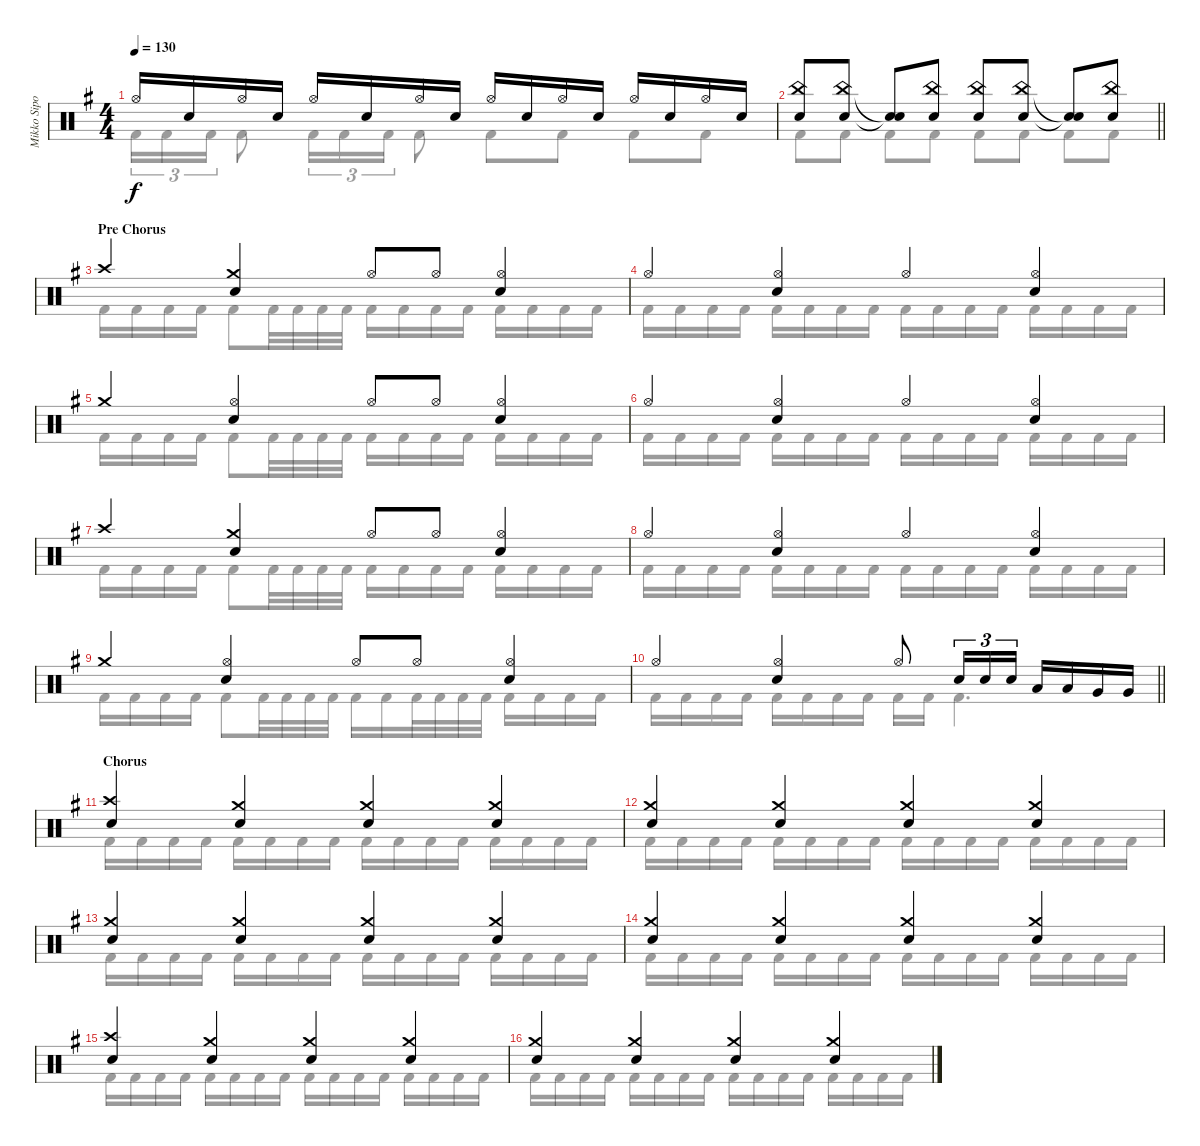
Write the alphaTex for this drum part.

\track ("Mikko Sipola (drums)" "Mikko Sipo") {instrument percussion}
\staff {score}
\articulation defaults
\voice
\ts (4 4)
\tempo 130
\clef neutral
\ks eminor "Hi-Hat (open)".16{dy f} "Electric Snare (hit)".16 "Hi-Hat (open)".16 "Electric Snare (hit)".16 "Hi-Hat (open)".16 "Electric Snare (hit)".16 "Hi-Hat (open)".16 "Electric Snare (hit)".16 "Hi-Hat (open)".16 "Electric Snare (hit)".16 "Hi-Hat (open)".16 "Electric Snare (hit)".16 "Hi-Hat (open)".16 "Electric Snare (hit)".16 "Hi-Hat (open)".16 "Electric Snare (hit)".16
|
\barLineRight lightlight
("Electric Snare (hit)" "China (hit)").8 ("Electric Snare (hit)" "China (hit)").8 ("Electric Snare (hit)"{t} "Snare (hit)"{t}).8 ("Electric Snare (hit)" "China (hit)").8 ("Electric Snare (hit)" "China (hit)").8 ("Electric Snare (hit)" "China (hit)").8 ("Electric Snare (hit)"{t} "Snare (hit)"{t}).8 ("Electric Snare (hit)" "China (hit)").8 |
\section ("" "Pre Chorus")
"Crash high (hit)".4 ("Crash medium (hit)" "Electric Snare (hit)").4 "Hi-Hat (open)".8 "Hi-Hat (open)".8 ("Hi-Hat (open)" "Electric Snare (hit)").4 |
"Hi-Hat (open)".4 ("Hi-Hat (open)" "Electric Snare (hit)").4 "Hi-Hat (open)".4 ("Hi-Hat (open)" "Electric Snare (hit)").4 |
"Crash medium (hit)".4 ("Hi-Hat (open)" "Electric Snare (hit)").4 "Hi-Hat (open)".8 "Hi-Hat (open)".8 ("Hi-Hat (open)" "Electric Snare (hit)").4 |
"Hi-Hat (open)".4 ("Hi-Hat (open)" "Electric Snare (hit)").4 "Hi-Hat (open)".4 ("Hi-Hat (open)" "Electric Snare (hit)").4 |
"Crash high (hit)".4 ("Crash medium (hit)" "Electric Snare (hit)").4 "Hi-Hat (open)".8 "Hi-Hat (open)".8 ("Hi-Hat (open)" "Electric Snare (hit)").4 |
"Hi-Hat (open)".4 ("Hi-Hat (open)" "Electric Snare (hit)").4 "Hi-Hat (open)".4 ("Hi-Hat (open)" "Electric Snare (hit)").4 |
"Crash medium (hit)".4 ("Hi-Hat (open)" "Electric Snare (hit)").4 "Hi-Hat (open)".8 "Hi-Hat (open)".8 ("Hi-Hat (open)" "Electric Snare (hit)").4 |
\barLineRight lightlight "Hi-Hat (open)".4
("Hi-Hat (open)" "Electric Snare (hit)").4 "Hi-Hat (open)".8 "Electric Snare (hit)".16{tu (3 2)} "Electric Snare (hit)".16{tu (3 2)} "Electric Snare (hit)".16{tu (3 2)} "Low Tom (hit)".16 "Low Tom (hit)".16 "Very Low Tom (hit)".16 "Very Low Tom (hit)".16 |
\section ("" "Chorus")
("Crash high (hit)" "Electric Snare (hit)").4 ("Crash medium (hit)" "Electric Snare (hit)").4 ("Crash medium (hit)" "Electric Snare (hit)").4 ("Crash medium (hit)" "Electric Snare (hit)").4 |
("Crash medium (hit)" "Electric Snare (hit)").4 ("Crash medium (hit)" "Electric Snare (hit)").4 ("Crash medium (hit)" "Electric Snare (hit)").4 ("Crash medium (hit)" "Electric Snare (hit)").4 |
("Crash medium (hit)" "Electric Snare (hit)").4 ("Crash medium (hit)" "Electric Snare (hit)").4 ("Crash medium (hit)" "Electric Snare (hit)").4 ("Crash medium (hit)" "Electric Snare (hit)").4 |
("Crash medium (hit)" "Electric Snare (hit)").4 ("Crash medium (hit)" "Electric Snare (hit)").4 ("Crash medium (hit)" "Electric Snare (hit)").4 ("Crash medium (hit)" "Electric Snare (hit)").4 |
("Crash high (hit)" "Electric Snare (hit)").4 ("Crash medium (hit)" "Electric Snare (hit)").4 ("Crash medium (hit)" "Electric Snare (hit)").4 ("Crash medium (hit)" "Electric Snare (hit)").4 |
("Crash medium (hit)" "Electric Snare (hit)").4 ("Crash medium (hit)" "Electric Snare (hit)").4 ("Crash medium (hit)" "Electric Snare (hit)").4 ("Crash medium (hit)" "Electric Snare (hit)").4
\voice
\clef neutral
\ottava regular
\simile none
\ks eminor "Kick (hit) 2".16{tu (3 2) dy f} "Kick (hit) 2".16{tu (3 2)} "Kick (hit) 2".16{tu (3 2)} "Kick (hit) 2".8 "Kick (hit) 2".16{tu (3 2)} "Kick (hit) 2".16{tu (3 2)} "Kick (hit) 2".16{tu (3 2)} "Kick (hit) 2".8 "Kick (hit) 2".8 "Kick (hit) 2".8 "Kick (hit) 2".8 "Kick (hit) 2".8
|
\barLineRight lightlight "Kick (hit) 2".8 "Kick (hit) 2".8 "Kick (hit) 2".8 "Kick (hit) 2".8 "Kick (hit) 2".8 "Kick (hit) 2".8 "Kick (hit) 2".8 "Kick (hit) 2".8
|
"Kick (hit) 2".16 "Kick (hit) 2".16 "Kick (hit) 2".16 "Kick (hit) 2".16 "Kick (hit) 2".8 "Kick (hit) 2".32 "Kick (hit) 2".32 "Kick (hit) 2".32 "Kick (hit) 2".32 "Kick (hit) 2".16 "Kick (hit) 2".16 "Kick (hit) 2".16 "Kick (hit) 2".16 "Kick (hit) 2".16 "Kick (hit) 2".16 "Kick (hit) 2".16 "Kick (hit) 2".16 |
"Kick (hit) 2".16 "Kick (hit) 2".16 "Kick (hit) 2".16 "Kick (hit) 2".16 "Kick (hit) 2".16 "Kick (hit) 2".16 "Kick (hit) 2".16 "Kick (hit) 2".16 "Kick (hit) 2".16 "Kick (hit) 2".16 "Kick (hit) 2".16 "Kick (hit) 2".16 "Kick (hit) 2".16 "Kick (hit) 2".16 "Kick (hit) 2".16 "Kick (hit) 2".16 |
"Kick (hit) 2".16 "Kick (hit) 2".16 "Kick (hit) 2".16 "Kick (hit) 2".16 "Kick (hit) 2".8 "Kick (hit) 2".32 "Kick (hit) 2".32 "Kick (hit) 2".32 "Kick (hit) 2".32 "Kick (hit) 2".16 "Kick (hit) 2".16 "Kick (hit) 2".16 "Kick (hit) 2".16 "Kick (hit) 2".16 "Kick (hit) 2".16 "Kick (hit) 2".16 "Kick (hit) 2".16 |
"Kick (hit) 2".16 "Kick (hit) 2".16 "Kick (hit) 2".16 "Kick (hit) 2".16 "Kick (hit) 2".16 "Kick (hit) 2".16 "Kick (hit) 2".16 "Kick (hit) 2".16 "Kick (hit) 2".16 "Kick (hit) 2".16 "Kick (hit) 2".16 "Kick (hit) 2".16 "Kick (hit) 2".16 "Kick (hit) 2".16 "Kick (hit) 2".16 "Kick (hit) 2".16 |
"Kick (hit) 2".16 "Kick (hit) 2".16 "Kick (hit) 2".16 "Kick (hit) 2".16 "Kick (hit) 2".8 "Kick (hit) 2".32 "Kick (hit) 2".32 "Kick (hit) 2".32 "Kick (hit) 2".32 "Kick (hit) 2".16 "Kick (hit) 2".16 "Kick (hit) 2".16 "Kick (hit) 2".16 "Kick (hit) 2".16 "Kick (hit) 2".16 "Kick (hit) 2".16 "Kick (hit) 2".16 |
"Kick (hit) 2".16 "Kick (hit) 2".16 "Kick (hit) 2".16 "Kick (hit) 2".16 "Kick (hit) 2".16 "Kick (hit) 2".16 "Kick (hit) 2".16 "Kick (hit) 2".16 "Kick (hit) 2".16 "Kick (hit) 2".16 "Kick (hit) 2".16 "Kick (hit) 2".16 "Kick (hit) 2".16 "Kick (hit) 2".16 "Kick (hit) 2".16 "Kick (hit) 2".16 |
"Kick (hit) 2".16 "Kick (hit) 2".16 "Kick (hit) 2".16 "Kick (hit) 2".16 "Kick (hit) 2".8 "Kick (hit) 2".32 "Kick (hit) 2".32 "Kick (hit) 2".32 "Kick (hit) 2".32 "Kick (hit) 2".16 "Kick (hit) 2".16 "Kick (hit) 2".32 "Kick (hit) 2".32 "Kick (hit) 2".32 "Kick (hit) 2".32 "Kick (hit) 2".16 "Kick (hit) 2".16 "Kick (hit) 2".16 "Kick (hit) 2".16 |
\barLineRight lightlight "Kick (hit) 2".16 "Kick (hit) 2".16 "Kick (hit) 2".16 "Kick (hit) 2".16 "Kick (hit) 2".16 "Kick (hit) 2".16 "Kick (hit) 2".16 "Kick (hit) 2".16 "Kick (hit) 2".16 "Kick (hit) 2".16 "Kick (hit) 2".4{d}
|
"Kick (hit) 2".16 "Kick (hit) 2".16 "Kick (hit) 2".16 "Kick (hit) 2".16 "Kick (hit) 2".16 "Kick (hit) 2".16 "Kick (hit) 2".16 "Kick (hit) 2".16 "Kick (hit) 2".16 "Kick (hit) 2".16 "Kick (hit) 2".16 "Kick (hit) 2".16 "Kick (hit) 2".16 "Kick (hit) 2".16 "Kick (hit) 2".16 "Kick (hit) 2".16 |
"Kick (hit) 2".16 "Kick (hit) 2".16 "Kick (hit) 2".16 "Kick (hit) 2".16 "Kick (hit) 2".16 "Kick (hit) 2".16 "Kick (hit) 2".16 "Kick (hit) 2".16 "Kick (hit) 2".16 "Kick (hit) 2".16 "Kick (hit) 2".16 "Kick (hit) 2".16 "Kick (hit) 2".16 "Kick (hit) 2".16 "Kick (hit) 2".16 "Kick (hit) 2".16 |
"Kick (hit) 2".16 "Kick (hit) 2".16 "Kick (hit) 2".16 "Kick (hit) 2".16 "Kick (hit) 2".16 "Kick (hit) 2".16 "Kick (hit) 2".16 "Kick (hit) 2".16 "Kick (hit) 2".16 "Kick (hit) 2".16 "Kick (hit) 2".16 "Kick (hit) 2".16 "Kick (hit) 2".16 "Kick (hit) 2".16 "Kick (hit) 2".16 "Kick (hit) 2".16 |
"Kick (hit) 2".16 "Kick (hit) 2".16 "Kick (hit) 2".16 "Kick (hit) 2".16 "Kick (hit) 2".16 "Kick (hit) 2".16 "Kick (hit) 2".16 "Kick (hit) 2".16 "Kick (hit) 2".16 "Kick (hit) 2".16 "Kick (hit) 2".16 "Kick (hit) 2".16 "Kick (hit) 2".16 "Kick (hit) 2".16 "Kick (hit) 2".16 "Kick (hit) 2".16 |
"Kick (hit) 2".16 "Kick (hit) 2".16 "Kick (hit) 2".16 "Kick (hit) 2".16 "Kick (hit) 2".16 "Kick (hit) 2".16 "Kick (hit) 2".16 "Kick (hit) 2".16 "Kick (hit) 2".16 "Kick (hit) 2".16 "Kick (hit) 2".16 "Kick (hit) 2".16 "Kick (hit) 2".16 "Kick (hit) 2".16 "Kick (hit) 2".16 "Kick (hit) 2".16 |
"Kick (hit) 2".16 "Kick (hit) 2".16 "Kick (hit) 2".16 "Kick (hit) 2".16 "Kick (hit) 2".16 "Kick (hit) 2".16 "Kick (hit) 2".16 "Kick (hit) 2".16 "Kick (hit) 2".16 "Kick (hit) 2".16 "Kick (hit) 2".16 "Kick (hit) 2".16 "Kick (hit) 2".16 "Kick (hit) 2".16 "Kick (hit) 2".16 "Kick (hit) 2".16
